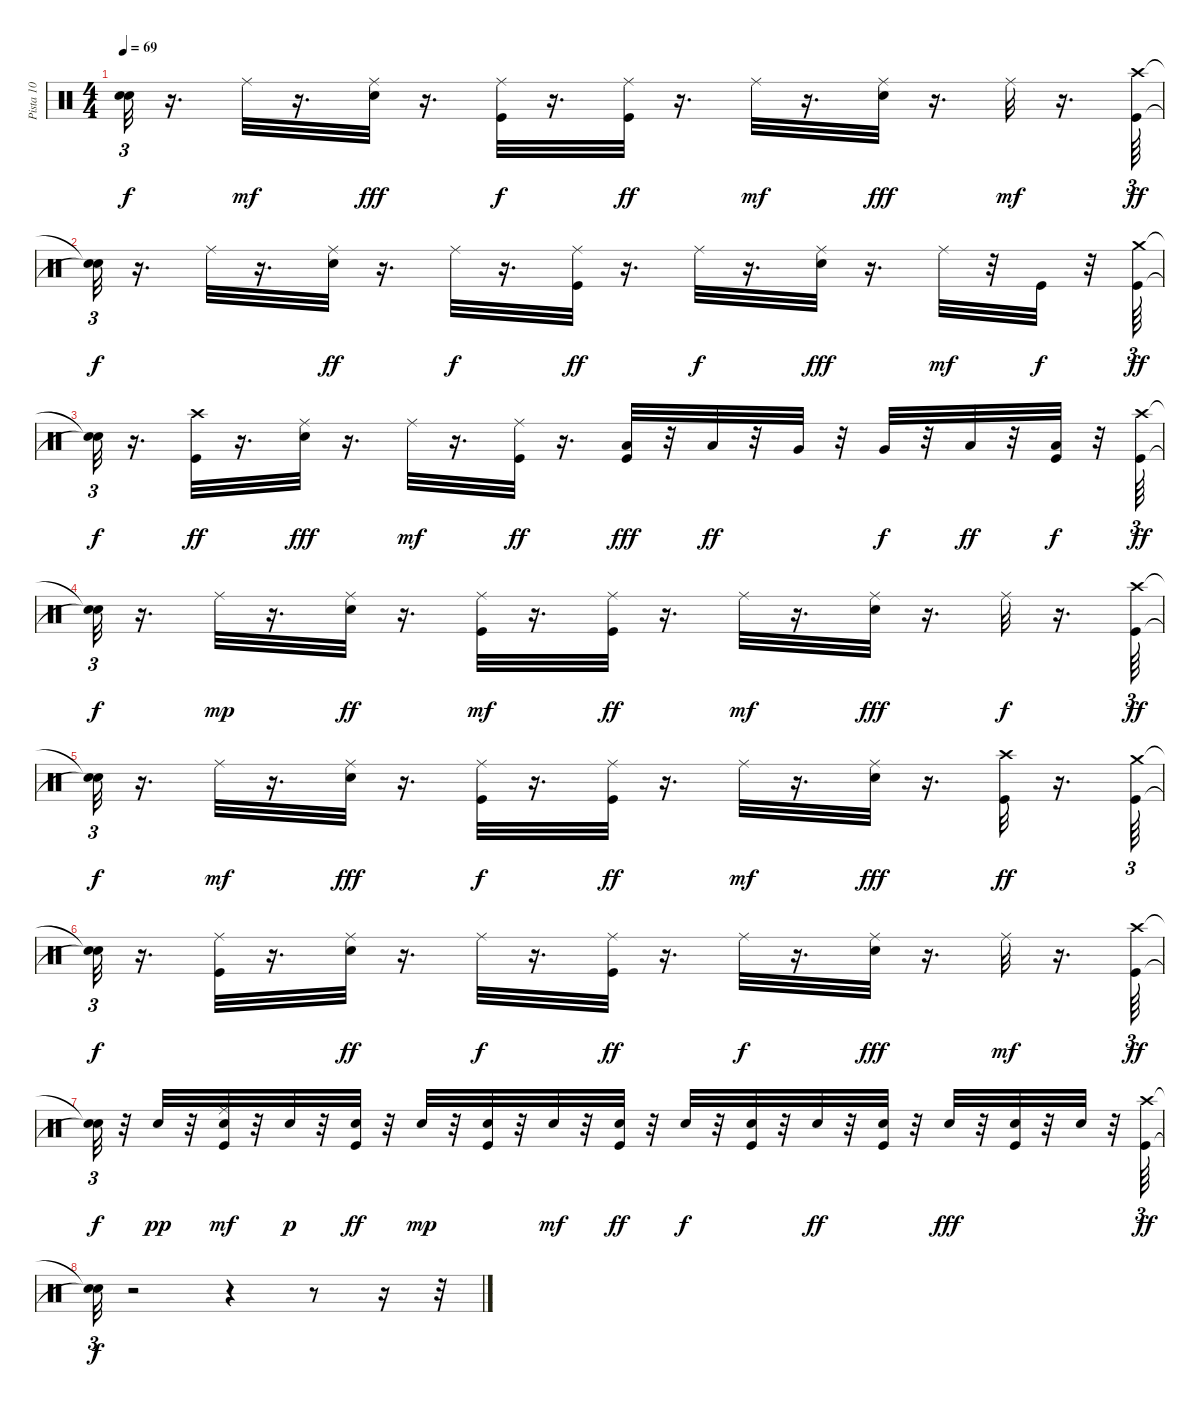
\track ("Pista 10" "Pista 10") {instrument percussion}
\staff {score}
\articulation defaults
\ts (4 4)
\tempo 69
\clef neutral
\ks c
("Snare (hit)"{t} "Snare (hit)"{t}).32{tu (3 2) dy f} r.16{d} "Ride (middle)".32{dy mf} r.16{d} ("Ride (middle)" "Snare (hit) 2").32{dy fff} r.16{d} ("Kick (hit)" "Ride (middle)").32{dy f} r.16{d} ("Ride (middle)" "Kick (hit)").32{dy ff} r.16{d} "Ride (middle)".32{dy mf} r.16{d} ("Ride (middle)" "Snare (hit) 2").32{dy fff} r.16{d} "Ride (middle)".32{dy mf} r.16{d} ("Crash high (hit)" "Kick (hit)").64{tu (3 2) dy ff} |
("Snare (hit)"{t} "Snare (hit)"{t}).32{tu (3 2) dy f} r.16{d} "Ride (middle)".32 r.16{d} ("Snare (hit) 2" "Ride (middle)").32{dy ff} r.16{d} "Ride (middle)".32{dy f} r.16{d} ("Ride (middle)" "Kick (hit)").32{dy ff} r.16{d} "Ride (middle)".32{dy f} r.16{d} ("Ride (middle)" "Snare (hit) 2").32{dy fff} r.16{d} "Ride (middle)".32{dy mf} r.32 "Kick (hit)".32{dy f} r.32 ("Crash medium (hit)" "Kick (hit)").64{tu (3 2) dy ff} |
("Snare (hit)"{t} "Snare (hit)"{t}).32{tu (3 2) dy f} r.16{d} ("Kick (hit)" "Crash high (hit)").32{dy ff} r.16{d} ("Ride (middle)" "Snare (hit) 2").32{dy fff} r.16{d} "Ride (middle)".32{dy mf} r.16{d} ("Ride (middle)" "Kick (hit)").32{dy ff} r.16{d} ("Kick (hit)" "Low Tom (hit)").32{dy fff} r.32 "Low Tom (hit)".32{dy ff} r.32 "Very Low Tom (hit)".32 r.32 "Very Low Tom (hit)".32{dy f} r.32 "Low Floor Tom (hit)".32{dy ff} r.32 ("Low Floor Tom (hit)" "Kick (hit)").32{dy f} r.32 ("Crash high (hit)" "Kick (hit)").64{tu (3 2) dy ff} |
("Snare (hit)"{t} "Snare (hit)"{t}).32{tu (3 2) dy f} r.16{d} "Ride (middle)".32{dy mp} r.16{d} ("Snare (hit) 2" "Ride (middle)").32{dy ff} r.16{d} ("Ride (middle)" "Kick (hit)").32{dy mf} r.16{d} ("Ride (middle)" "Kick (hit)").32{dy ff} r.16{d} "Ride (middle)".32{dy mf} r.16{d} ("Ride (middle)" "Snare (hit) 2").32{dy fff} r.16{d} "Ride (middle)".32{dy f} r.16{d} ("Crash high (hit)" "Kick (hit)").64{tu (3 2) dy ff} |
("Snare (hit)"{t} "Snare (hit)"{t}).32{tu (3 2) dy f} r.16{d} "Ride (middle)".32{dy mf} r.16{d} ("Ride (middle)" "Snare (hit) 2").32{dy fff} r.16{d} ("Kick (hit)" "Ride (middle)").32{dy f} r.16{d} ("Ride (middle)" "Kick (hit)").32{dy ff} r.16{d} "Ride (middle)".32{dy mf} r.16{d} ("Ride (middle)" "Snare (hit) 2").32{dy fff} r.16{d} ("Crash high (hit)" "Kick (hit)").32{dy ff} r.16{d} ("Crash medium (hit)" "Kick (hit)").64{tu (3 2)} |
("Snare (hit)"{t} "Snare (hit)"{t}).32{tu (3 2) dy f} r.16{d} ("Ride (middle)" "Kick (hit)").32 r.16{d} ("Snare (hit) 2" "Ride (middle)").32{dy ff} r.16{d} "Ride (middle)".32{dy f} r.16{d} ("Ride (middle)" "Kick (hit)").32{dy ff} r.16{d} "Ride (middle)".32{dy f} r.16{d} ("Ride (middle)" "Snare (hit) 2").32{dy fff} r.16{d} "Ride (middle)".32{dy mf} r.16{d} ("Crash high (hit)" "Kick (hit)").64{tu (3 2) dy ff} |
("Snare (hit)"{t} "Snare (hit)"{t}).32{tu (3 2) dy f} r.32 "Snare (hit) 2".32{dy pp} r.32 ("Snare (hit) 2" "Kick (hit)" "Ride (middle)").32{dy mf} r.32 "Snare (hit) 2".32{dy p} r.32 ("Snare (hit) 2" "Kick (hit)").32{dy ff} r.32 "Snare (hit) 2".32{dy mp} r.32 ("Snare (hit) 2" "Kick (hit)").32 r.32 "Snare (hit) 2".32{dy mf} r.32 ("Snare (hit) 2" "Kick (hit)").32{dy ff} r.32 "Snare (hit) 2".32{dy f} r.32 ("Snare (hit) 2" "Kick (hit)").32 r.32 "Snare (hit) 2".32{dy ff} r.32 ("Snare (hit) 2" "Kick (hit)").32 r.32 "Snare (hit) 2".32{dy fff} r.32 ("Snare (hit) 2" "Kick (hit)").32 r.32 "Snare (hit) 2".32 r.32 ("Crash high (hit)" "Kick (hit)").64{tu (3 2) dy ff} |
("Snare (hit)"{t} "Snare (hit)"{t}).32{tu (3 2) dy f} r.2 r.4 r.8 r.16 r.32
